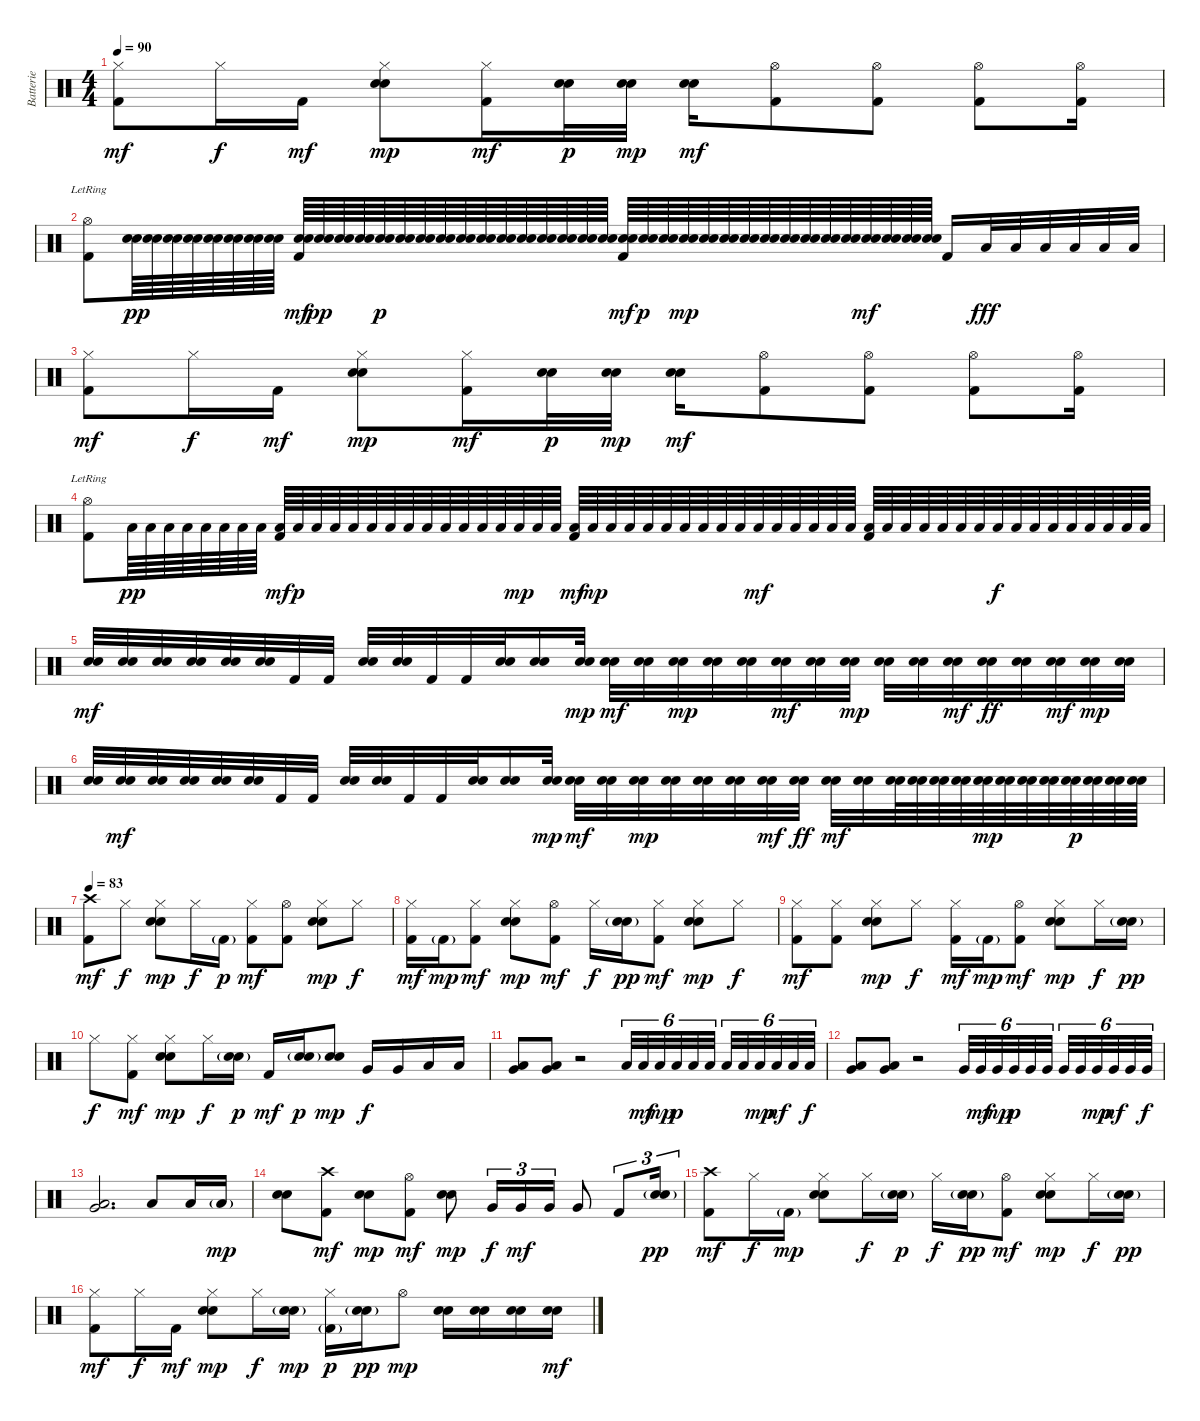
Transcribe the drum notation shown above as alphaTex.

\track ("Batterie" "Batterie") {instrument percussion}
\staff {score}
\articulation defaults
\ts (4 4)
\tempo 90
\clef neutral
\ks c
("Hi-Hat (closed)" "Kick (hit) 2").8{dy mf} "Hi-Hat (closed)".16{dy f} "Kick (hit) 2".16{dy mf} ("Hi-Hat (closed)" "Electric Snare (hit)" "Snare (hit) 2").8{dy mp} ("Hi-Hat (closed)" "Kick (hit) 2").16{dy mf} ("Electric Snare (hit)" "Snare (hit) 2").32{dy p} ("Electric Snare (hit)" "Snare (hit) 2").32{dy mp} ("Electric Snare (hit)" "Snare (hit) 2").16{dy mf} ("Hi-Hat (open)" "Kick (hit) 2").8 ("Hi-Hat (open)" "Kick (hit) 2").8 ("Hi-Hat (open)" "Kick (hit) 2").8 ("Hi-Hat (open)" "Kick (hit) 2").16 |
("Hi-Hat (open)"{lr} "Kick (hit) 2").8 ("Electric Snare (hit)" "Snare (hit) 2").64{dy pp} ("Electric Snare (hit)" "Snare (hit) 2").64 ("Electric Snare (hit)" "Snare (hit) 2").64 ("Electric Snare (hit)" "Snare (hit) 2").64 ("Electric Snare (hit)" "Snare (hit) 2").64 ("Electric Snare (hit)" "Snare (hit) 2").64 ("Electric Snare (hit)" "Snare (hit) 2").64 ("Electric Snare (hit)" "Snare (hit) 2").64 ("Electric Snare (hit)" "Snare (hit) 2" "Kick (hit) 2").64{dy mf} ("Electric Snare (hit)" "Snare (hit) 2").64{dy pp} ("Electric Snare (hit)" "Snare (hit) 2").64 ("Electric Snare (hit)" "Snare (hit) 2").64 ("Electric Snare (hit)" "Snare (hit) 2").64{dy p} ("Electric Snare (hit)" "Snare (hit) 2").64 ("Electric Snare (hit)" "Snare (hit) 2").64 ("Electric Snare (hit)" "Snare (hit) 2").64 ("Electric Snare (hit)" "Snare (hit) 2").64 ("Electric Snare (hit)" "Snare (hit) 2").64 ("Electric Snare (hit)" "Snare (hit) 2").64 ("Electric Snare (hit)" "Snare (hit) 2").64 ("Electric Snare (hit)" "Snare (hit) 2").64 ("Electric Snare (hit)" "Snare (hit) 2").64 ("Electric Snare (hit)" "Snare (hit) 2").64 ("Electric Snare (hit)" "Snare (hit) 2").64 ("Electric Snare (hit)" "Snare (hit) 2" "Kick (hit) 2").64{dy mf} ("Electric Snare (hit)" "Snare (hit) 2").64{dy p} ("Electric Snare (hit)" "Snare (hit) 2").64 ("Electric Snare (hit)" "Snare (hit) 2").64{dy mp} ("Electric Snare (hit)" "Snare (hit) 2").64 ("Electric Snare (hit)" "Snare (hit) 2").64 ("Electric Snare (hit)" "Snare (hit) 2").64 ("Electric Snare (hit)" "Snare (hit) 2").64 ("Electric Snare (hit)" "Snare (hit) 2").64 ("Electric Snare (hit)" "Snare (hit) 2").64 ("Electric Snare (hit)" "Snare (hit) 2").64 ("Electric Snare (hit)" "Snare (hit) 2").64 ("Electric Snare (hit)" "Snare (hit) 2").64{dy mf} ("Electric Snare (hit)" "Snare (hit) 2").64 ("Electric Snare (hit)" "Snare (hit) 2").64 ("Electric Snare (hit)" "Snare (hit) 2").64 "Kick (hit) 2".16 "Low Floor Tom (hit)".32{dy fff} "Low Floor Tom (hit)".32 "Low Tom (hit)".32 "Low Tom (hit)".32 "Low Tom (hit)".32 "Low Tom (hit)".32 |
("Hi-Hat (closed)" "Kick (hit) 2").8{dy mf} "Hi-Hat (closed)".16{dy f} "Kick (hit) 2".16{dy mf} ("Hi-Hat (closed)" "Electric Snare (hit)" "Snare (hit) 2").8{dy mp} ("Hi-Hat (closed)" "Kick (hit) 2").16{dy mf} ("Electric Snare (hit)" "Snare (hit) 2").32{dy p} ("Electric Snare (hit)" "Snare (hit) 2").32{dy mp} ("Electric Snare (hit)" "Snare (hit) 2").16{dy mf} ("Hi-Hat (open)" "Kick (hit) 2").8 ("Hi-Hat (open)" "Kick (hit) 2").8 ("Hi-Hat (open)" "Kick (hit) 2").8 ("Hi-Hat (open)" "Kick (hit) 2").16 |
("Hi-Hat (open)"{lr} "Kick (hit) 2").8 "Low Floor Tom (hit)".64{dy pp} "Low Floor Tom (hit)".64 "Low Floor Tom (hit)".64 "Low Floor Tom (hit)".64 "Low Floor Tom (hit)".64 "Low Floor Tom (hit)".64 "Low Floor Tom (hit)".64 "Low Floor Tom (hit)".64 ("Low Floor Tom (hit)" "Kick (hit) 2").64{dy mf} "Low Floor Tom (hit)".64{dy p} "Low Floor Tom (hit)".64 "Low Floor Tom (hit)".64 "Low Floor Tom (hit)".64 "Low Floor Tom (hit)".64 "Low Floor Tom (hit)".64 "Low Floor Tom (hit)".64 "Low Floor Tom (hit)".64 "Low Floor Tom (hit)".64 "Low Floor Tom (hit)".64 "Low Floor Tom (hit)".64 "Low Floor Tom (hit)".64 "Low Floor Tom (hit)".64{dy mp} "Low Floor Tom (hit)".64 "Low Floor Tom (hit)".64 ("Low Floor Tom (hit)" "Kick (hit) 2").64{dy mf} "Low Floor Tom (hit)".64{dy mp} "Low Floor Tom (hit)".64 "Low Floor Tom (hit)".64 "Low Floor Tom (hit)".64 "Low Floor Tom (hit)".64 "Low Floor Tom (hit)".64 "Low Floor Tom (hit)".64 "Low Floor Tom (hit)".64 "Low Floor Tom (hit)".64 "Low Floor Tom (hit)".64{dy mf} "Low Floor Tom (hit)".64 "Low Floor Tom (hit)".64 "Low Floor Tom (hit)".64 "Low Floor Tom (hit)".64 "Low Floor Tom (hit)".64 ("Low Floor Tom (hit)" "Kick (hit) 2").64 "Low Floor Tom (hit)".64 "Low Floor Tom (hit)".64 "Low Floor Tom (hit)".64 "Low Floor Tom (hit)".64 "Low Floor Tom (hit)".64 "Low Floor Tom (hit)".64 "Low Floor Tom (hit)".64{dy f} "Low Floor Tom (hit)".64 "Low Floor Tom (hit)".64 "Low Floor Tom (hit)".64 "Low Floor Tom (hit)".64 "Low Floor Tom (hit)".64 "Low Floor Tom (hit)".64 "Low Floor Tom (hit)".64 "Low Floor Tom (hit)".64 |
("Electric Snare (hit)" "Snare (hit) 2").32{dy mf} ("Electric Snare (hit)" "Snare (hit) 2").32 ("Electric Snare (hit)" "Snare (hit) 2").32 ("Electric Snare (hit)" "Snare (hit) 2").32 ("Electric Snare (hit)" "Snare (hit) 2").32 ("Electric Snare (hit)" "Snare (hit) 2").32 "Kick (hit) 2".32 "Kick (hit) 2".32 ("Electric Snare (hit)" "Snare (hit) 2").32 ("Electric Snare (hit)" "Snare (hit) 2").32 "Kick (hit) 2".32 "Kick (hit) 2".32 ("Electric Snare (hit)" "Snare (hit) 2").32 ("Electric Snare (hit)" "Snare (hit) 2").16 ("Electric Snare (hit)" "Snare (hit) 2").32{dy mp} ("Electric Snare (hit)" "Snare (hit) 2").32{dy mf} ("Electric Snare (hit)" "Snare (hit) 2").32 ("Electric Snare (hit)" "Snare (hit) 2").32{dy mp} ("Electric Snare (hit)" "Snare (hit) 2").32 ("Electric Snare (hit)" "Snare (hit) 2").32 ("Electric Snare (hit)" "Snare (hit) 2").32{dy mf} ("Electric Snare (hit)" "Snare (hit) 2").32 ("Electric Snare (hit)" "Snare (hit) 2").32{dy mp} ("Electric Snare (hit)" "Snare (hit) 2").32 ("Electric Snare (hit)" "Snare (hit) 2").32 ("Electric Snare (hit)" "Snare (hit) 2").32{dy mf} ("Electric Snare (hit)" "Snare (hit) 2").32{dy ff} ("Electric Snare (hit)" "Snare (hit) 2").32 ("Electric Snare (hit)" "Snare (hit) 2").32{dy mf} ("Electric Snare (hit)" "Snare (hit) 2").32{dy mp} ("Electric Snare (hit)" "Snare (hit) 2").32 |
("Electric Snare (hit)" "Snare (hit) 2").32 ("Electric Snare (hit)" "Snare (hit) 2").32{dy mf} ("Electric Snare (hit)" "Snare (hit) 2").32 ("Electric Snare (hit)" "Snare (hit) 2").32 ("Electric Snare (hit)" "Snare (hit) 2").32 ("Electric Snare (hit)" "Snare (hit) 2").32 "Kick (hit) 2".32 "Kick (hit) 2".32 ("Electric Snare (hit)" "Snare (hit) 2").32 ("Electric Snare (hit)" "Snare (hit) 2").32 "Kick (hit) 2".32 "Kick (hit) 2".32 ("Electric Snare (hit)" "Snare (hit) 2").32 ("Electric Snare (hit)" "Snare (hit) 2").16 ("Electric Snare (hit)" "Snare (hit) 2").32{dy mp} ("Electric Snare (hit)" "Snare (hit) 2").32{dy mf} ("Electric Snare (hit)" "Snare (hit) 2").32 ("Electric Snare (hit)" "Snare (hit) 2").32{dy mp} ("Electric Snare (hit)" "Snare (hit) 2").32 ("Electric Snare (hit)" "Snare (hit) 2").32 ("Electric Snare (hit)" "Snare (hit) 2").32 ("Electric Snare (hit)" "Snare (hit) 2").32{dy mf} ("Electric Snare (hit)" "Snare (hit) 2").32{dy ff} ("Electric Snare (hit)" "Snare (hit) 2").32{dy mf} ("Electric Snare (hit)" "Snare (hit) 2").32 ("Electric Snare (hit)" "Snare (hit) 2").64 ("Electric Snare (hit)" "Snare (hit) 2").64 ("Electric Snare (hit)" "Snare (hit) 2").64 ("Electric Snare (hit)" "Snare (hit) 2").64 ("Electric Snare (hit)" "Snare (hit) 2").64{dy mp} ("Electric Snare (hit)" "Snare (hit) 2").64 ("Electric Snare (hit)" "Snare (hit) 2").64 ("Electric Snare (hit)" "Snare (hit) 2").64 ("Electric Snare (hit)" "Snare (hit) 2").64{dy p} ("Electric Snare (hit)" "Snare (hit) 2").64 ("Electric Snare (hit)" "Snare (hit) 2").64 ("Electric Snare (hit)" "Snare (hit) 2").64 |
\tempo 83
("Crash high (hit)" "Kick (hit) 2").8{dy mf} "Hi-Hat (closed)".8{dy f} ("Hi-Hat (closed)" "Electric Snare (hit)" "Snare (hit) 2").8{dy mp} "Hi-Hat (closed)".16{dy f} "Kick (hit) 2"{g}.16{dy p} ("Hi-Hat (closed)" "Kick (hit) 2").8{dy mf} ("Hi-Hat (open)" "Kick (hit) 2").8 ("Hi-Hat (closed)" "Electric Snare (hit)" "Snare (hit) 2").8{dy mp} "Hi-Hat (closed)".8{dy f} |
("Hi-Hat (closed)" "Kick (hit) 2").16{dy mf} "Kick (hit) 2"{g}.16{dy mp} ("Hi-Hat (closed)" "Kick (hit) 2").8{dy mf} ("Hi-Hat (closed)" "Electric Snare (hit)" "Snare (hit) 2").8{dy mp} ("Hi-Hat (open)" "Kick (hit) 2").8{dy mf} "Hi-Hat (closed)".16{dy f} ("Electric Snare (hit)"{g} "Snare (hit) 2"{g}).16{dy pp} ("Hi-Hat (closed)" "Kick (hit) 2").8{dy mf} ("Hi-Hat (closed)" "Electric Snare (hit)" "Snare (hit) 2").8{dy mp} "Hi-Hat (closed)".8{dy f} |
("Hi-Hat (closed)" "Kick (hit) 2").8{dy mf} ("Hi-Hat (closed)" "Kick (hit) 2").8 ("Hi-Hat (closed)" "Electric Snare (hit)" "Snare (hit) 2").8{dy mp} "Hi-Hat (closed)".8{dy f} ("Hi-Hat (closed)" "Kick (hit) 2").16{dy mf} "Kick (hit) 2"{g}.16{dy mp} ("Hi-Hat (open)" "Kick (hit) 2").8{dy mf} ("Hi-Hat (closed)" "Electric Snare (hit)" "Snare (hit) 2").8{dy mp} "Hi-Hat (closed)".16{dy f} ("Electric Snare (hit)"{g} "Snare (hit) 2"{g}).16{dy pp} |
"Hi-Hat (closed)".8{dy f} ("Hi-Hat (closed)" "Kick (hit) 2").8{dy mf} ("Hi-Hat (closed)" "Electric Snare (hit)" "Snare (hit) 2").8{dy mp} "Hi-Hat (closed)".16{dy f} ("Electric Snare (hit)"{g} "Snare (hit) 2"{g}).16{dy p} "Kick (hit) 2".16{dy mf} ("Electric Snare (hit)"{g} "Snare (hit) 2"{g}).16{dy p} ("Electric Snare (hit)" "Snare (hit) 2").8{dy mp} "Very Low Tom (hit)".16{dy f} "Very Low Tom (hit)".16 "Low Floor Tom (hit)".16 "Low Floor Tom (hit)".16 |
("Very Low Tom (hit)" "Low Floor Tom (hit)").8 ("Very Low Tom (hit)" "Low Floor Tom (hit)").8 r.2 "Low Floor Tom (hit)".32{tu (6 4)} "Low Floor Tom (hit)".32{tu (6 4) dy mf} "Low Floor Tom (hit)".32{tu (6 4) dy mp} "Low Floor Tom (hit)".32{tu (6 4) dy p} "Low Floor Tom (hit)".32{tu (6 4)} "Low Floor Tom (hit)".32{tu (6 4)} "Low Floor Tom (hit)".32{tu (6 4)} "Low Floor Tom (hit)".32{tu (6 4)} "Low Floor Tom (hit)".32{tu (6 4) dy mp} "Low Floor Tom (hit)".32{tu (6 4) dy mf} "Low Floor Tom (hit)".32{tu (6 4)} "Low Floor Tom (hit)".32{tu (6 4) dy f} |
("Very Low Tom (hit)" "Low Floor Tom (hit)").8 ("Very Low Tom (hit)" "Low Floor Tom (hit)").8 r.2 "Very Low Tom (hit)".32{tu (6 4)} "Very Low Tom (hit)".32{tu (6 4) dy mf} "Very Low Tom (hit)".32{tu (6 4) dy mp} "Very Low Tom (hit)".32{tu (6 4) dy p} "Very Low Tom (hit)".32{tu (6 4)} "Very Low Tom (hit)".32{tu (6 4)} "Very Low Tom (hit)".32{tu (6 4)} "Very Low Tom (hit)".32{tu (6 4)} "Very Low Tom (hit)".32{tu (6 4) dy mp} "Very Low Tom (hit)".32{tu (6 4) dy mf} "Very Low Tom (hit)".32{tu (6 4)} "Very Low Tom (hit)".32{tu (6 4) dy f} |
("Very Low Tom (hit)" "Low Floor Tom (hit)").2{d} "Low Floor Tom (hit)".8 "Low Floor Tom (hit)".16 "Low Floor Tom (hit)"{g}.16{dy mp} |
("Electric Snare (hit)" "Snare (hit) 2").8 ("Crash high (hit)" "Kick (hit) 2").8{dy mf} ("Electric Snare (hit)" "Snare (hit) 2").8{dy mp} ("Hi-Hat (open)" "Kick (hit) 2").8{dy mf} ("Electric Snare (hit)" "Snare (hit) 2").8{dy mp} "Very Low Tom (hit)".16{tu (3 2) dy f} "Very Low Tom (hit)".16{tu (3 2) dy mf} "Very Low Tom (hit)".16{tu (3 2)} "Very Low Tom (hit)".8 "Kick (hit) 2".8{tu (3 2)} ("Electric Snare (hit)"{g} "Snare (hit) 2"{g}).16{tu (3 2) dy pp} |
("Crash high (hit)" "Kick (hit) 2").8{dy mf} "Hi-Hat (closed)".16{dy f} "Kick (hit) 2"{g}.16{dy mp} ("Hi-Hat (closed)" "Electric Snare (hit)" "Snare (hit) 2").8 "Hi-Hat (closed)".16{dy f} ("Electric Snare (hit)"{g} "Snare (hit) 2"{g}).16{dy p} "Hi-Hat (closed)".16{dy f} ("Electric Snare (hit)"{g} "Snare (hit) 2"{g}).16{dy pp} ("Hi-Hat (open)" "Kick (hit) 2").8{dy mf} ("Hi-Hat (closed)" "Electric Snare (hit)" "Snare (hit) 2").8{dy mp} "Hi-Hat (closed)".16{dy f} ("Electric Snare (hit)"{g} "Snare (hit) 2"{g}).16{dy pp} |
("Hi-Hat (closed)" "Kick (hit) 2").8{dy mf} "Hi-Hat (closed)".16{dy f} "Kick (hit) 2".16{dy mf} ("Hi-Hat (closed)" "Electric Snare (hit)" "Snare (hit) 2").8{dy mp} "Hi-Hat (closed)".16{dy f} ("Electric Snare (hit)"{g} "Snare (hit) 2"{g}).16{dy mp} ("Hi-Hat (closed)" "Kick (hit) 2"{g}).16{dy p} ("Electric Snare (hit)"{g} "Snare (hit) 2"{g}).16{dy pp} "Hi-Hat (open)".8{dy mp} ("Electric Snare (hit)" "Snare (hit) 2").16 ("Electric Snare (hit)" "Snare (hit) 2").16 ("Electric Snare (hit)" "Snare (hit) 2").16 ("Electric Snare (hit)" "Snare (hit) 2").16{dy mf}
